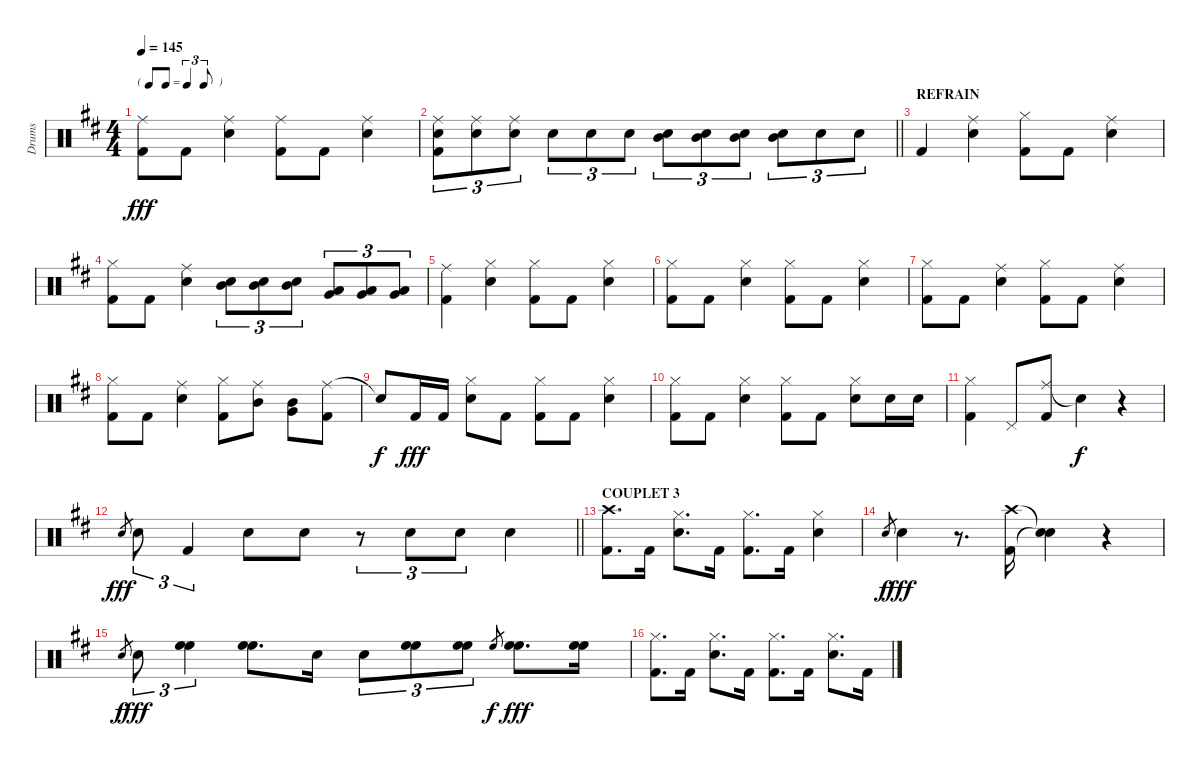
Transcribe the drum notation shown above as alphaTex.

\track ("Drums" "Drums") {instrument percussion}
\staff {score}
\articulation defaults
\ts (4 4)
\tf triplet8th
\tempo 145
\clef neutral
\ks d
("Ride (middle)" "Kick (hit) 2").8{dy fff} "Kick (hit) 2".8 ("Ride (middle)" "Snare (hit) 2").4 ("Ride (middle)" "Kick (hit) 2").8 "Kick (hit) 2".8 ("Ride (middle)" "Snare (hit) 2").4 |
\barLineRight lightlight
("Ride (middle)" "Snare (hit) 2" "Kick (hit) 2").8{tu (3 2)} ("Ride (middle)" "Snare (hit) 2").8{tu (3 2)} ("Ride (middle)" "Snare (hit) 2").8{tu (3 2)} "Snare (hit) 2".8{tu (3 2)} "Snare (hit) 2".8{tu (3 2)} "Snare (hit) 2".8{tu (3 2)} ("Mid Tom (hit)" "Snare (hit) 2").8{tu (3 2)} ("Mid Tom (hit)" "Snare (hit) 2").8{tu (3 2)} ("Mid Tom (hit)" "Snare (hit) 2").8{tu (3 2)} ("Mid Tom (hit)" "Snare (hit) 2").8{tu (3 2)} "Snare (hit) 2".8{tu (3 2)} "Snare (hit) 2".8{tu (3 2)} |
\section ("" "REFRAIN")
"Kick (hit) 2".4 ("Ride (middle)" "Snare (hit) 2").4 ("Hi-Hat (closed)" "Kick (hit) 2").8 "Kick (hit) 2".8 ("Ride (middle)" "Snare (hit) 2").4 |
("Hi-Hat (closed)" "Kick (hit) 2").8 "Kick (hit) 2".8 ("Ride (middle)" "Snare (hit) 2").4 ("Mid Tom (hit)" "Snare (hit) 2").8{tu (3 2)} ("Mid Tom (hit)" "Snare (hit) 2").8{tu (3 2)} ("Mid Tom (hit)" "Snare (hit) 2").8{tu (3 2)} ("Low Tom (hit)" "Very Low Tom (hit)").8{tu (3 2)} ("Low Tom (hit)" "Very Low Tom (hit)").8{tu (3 2)} ("Low Tom (hit)" "Very Low Tom (hit)").8{tu (3 2)} |
("Ride (middle)" "Kick (hit) 2").4 ("Hi-Hat (closed)" "Snare (hit) 2").4 ("Hi-Hat (closed)" "Kick (hit) 2").8 "Kick (hit) 2".8 ("Hi-Hat (closed)" "Snare (hit) 2").4 |
("Hi-Hat (closed)" "Kick (hit) 2").8 "Kick (hit) 2".8 ("Hi-Hat (closed)" "Snare (hit) 2").4 ("Hi-Hat (closed)" "Kick (hit) 2").8 "Kick (hit) 2".8 ("Hi-Hat (closed)" "Snare (hit) 2").4 |
("Hi-Hat (closed)" "Kick (hit) 2").8 "Kick (hit) 2".8 ("Ride (middle)" "Snare (hit) 2").4 ("Hi-Hat (closed)" "Kick (hit) 2").8 "Kick (hit) 2".8 ("Ride (middle)" "Snare (hit) 2").4 |
("Hi-Hat (closed)" "Kick (hit) 2").8 "Kick (hit) 2".8 ("Ride (middle)" "Snare (hit) 2").4 ("Hi-Hat (closed)" "Kick (hit) 2").8 ("Ride (middle)" "Mid Tom (hit)").8 ("Very Low Tom (hit)" "Mid Tom (hit)").8 ("Ride (middle)" "Kick (hit) 2").8 |
"Snare (hit)"{t}.8{dy f} "Kick (hit) 2".16{dy fff} "Kick (hit) 2".16 ("Hi-Hat (closed)" "Snare (hit) 2").8 "Kick (hit) 2".8 ("Hi-Hat (closed)" "Kick (hit) 2").8 "Kick (hit) 2".8 ("Hi-Hat (closed)" "Snare (hit) 2").4 |
("Hi-Hat (closed)" "Kick (hit) 2").8 "Kick (hit) 2".8 ("Hi-Hat (closed)" "Snare (hit) 2").4 ("Hi-Hat (closed)" "Kick (hit) 2").8 "Kick (hit) 2".8 ("Hi-Hat (closed)" "Snare (hit) 2").8 "Snare (hit) 2".16 "Snare (hit) 2".16 |
("Hi-Hat (closed)" "Kick (hit) 2").4 "Pedal Hi-Hat (hit)".8 ("Ride (middle)" "Kick (hit) 2").8 "Snare (hit)"{t}.4{dy f} r.4 |
\barLineRight lightlight "Snare (hit) 2".8{gr dy fff} "Snare (hit) 2".8{tu (3 2)} "Kick (hit) 2".4{tu (3 2)} "Snare (hit) 2".8 "Snare (hit) 2".8
r.8{tu (3 2)} "Snare (hit) 2".8{tu (3 2)} "Snare (hit) 2".8{tu (3 2)} "Snare (hit) 2".4 |
\section ("" "COUPLET 3")
("Crash high (hit)" "Kick (hit) 2").8{d} "Kick (hit) 2".16 ("Hi-Hat (closed)" "Snare (hit) 2").8{d} "Kick (hit) 2".16 ("Hi-Hat (closed)" "Kick (hit) 2").8{d} "Kick (hit) 2".16 ("Hi-Hat (closed)" "Snare (hit) 2").4 |
"Snare (hit) 2".8{gr dy f} "Snare (hit) 2".4{dy fff} r.8{d} ("Crash high (hit)" "Kick (hit) 2").16 ("Snare (hit)"{t} "Snare (hit)"{t}).4 r.4 |
"Snare (hit) 2".8{gr dy f} "Snare (hit) 2".8{tu (3 2) dy fff} ("High Floor Tom (hit)" "High Floor Tom (hit)").4{tu (3 2)} ("High Floor Tom (hit)" "High Floor Tom (hit)").8{d} "Snare (hit) 2".16 "Snare (hit) 2".8{tu (3 2)} ("High Floor Tom (hit)" "High Floor Tom (hit)").8{tu (3 2)} ("High Floor Tom (hit)" "High Floor Tom (hit)").8{tu (3 2)} "High Floor Tom (hit)".8{gr dy f} ("High Floor Tom (hit)" "High Floor Tom (hit)").8{d dy fff} ("High Floor Tom (hit)" "High Floor Tom (hit)").16 |
("Hi-Hat (closed)" "Kick (hit) 2").8{d} "Kick (hit) 2".16 ("Hi-Hat (closed)" "Snare (hit) 2").8{d} "Kick (hit) 2".16 ("Hi-Hat (closed)" "Kick (hit) 2").8{d} "Kick (hit) 2".16 ("Hi-Hat (closed)" "Snare (hit) 2").8{d} "Kick (hit) 2".16
